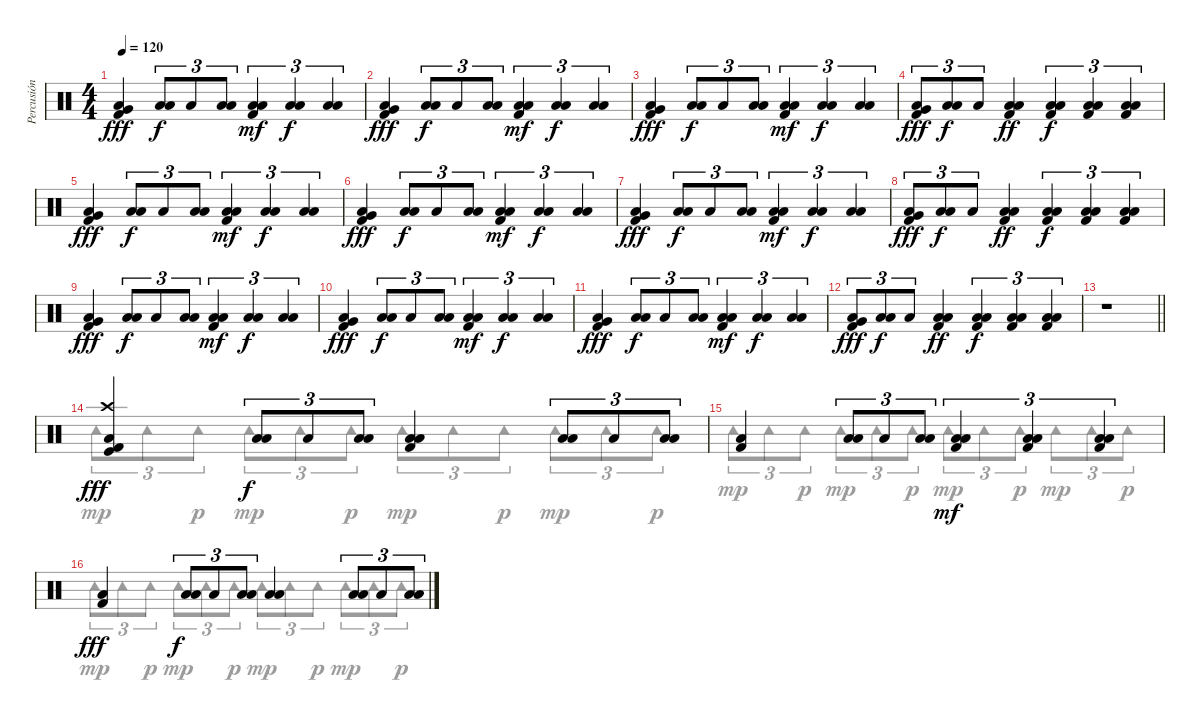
\track ("Percusión" "Percusión") {instrument percussion}
\staff {score}
\articulation defaults
\voice
\ts (4 4)
\tempo 120
\clef neutral
\ks c
("Low Floor Tom (hit)" "Very Low Tom (hit)" "Kick (hit) 2").4{dy fff} ("Low Floor Tom (hit)" "Low Floor Tom (hit)").8{tu (3 2) dy f} "Low Floor Tom (hit)".8{tu (3 2)} ("Low Floor Tom (hit)" "Low Floor Tom (hit)").8{tu (3 2)} ("Kick (hit) 2" "Low Floor Tom (hit)" "Low Floor Tom (hit)").4{tu (3 2) dy mf} ("Low Floor Tom (hit)" "Low Floor Tom (hit)").4{tu (3 2) dy f} ("Low Floor Tom (hit)" "Low Floor Tom (hit)").4{tu (3 2)} |
("Low Floor Tom (hit)" "Very Low Tom (hit)" "Kick (hit) 2").4{dy fff} ("Low Floor Tom (hit)" "Low Floor Tom (hit)").8{tu (3 2) dy f} "Low Floor Tom (hit)".8{tu (3 2)} ("Low Floor Tom (hit)" "Low Floor Tom (hit)").8{tu (3 2)} ("Kick (hit) 2" "Low Floor Tom (hit)" "Low Floor Tom (hit)").4{tu (3 2) dy mf} ("Low Floor Tom (hit)" "Low Floor Tom (hit)").4{tu (3 2) dy f} ("Low Floor Tom (hit)" "Low Floor Tom (hit)").4{tu (3 2)} |
("Low Floor Tom (hit)" "Very Low Tom (hit)" "Kick (hit) 2").4{dy fff} ("Low Floor Tom (hit)" "Low Floor Tom (hit)").8{tu (3 2) dy f} "Low Floor Tom (hit)".8{tu (3 2)} ("Low Floor Tom (hit)" "Low Floor Tom (hit)").8{tu (3 2)} ("Kick (hit) 2" "Low Floor Tom (hit)" "Low Floor Tom (hit)").4{tu (3 2) dy mf} ("Low Floor Tom (hit)" "Low Floor Tom (hit)").4{tu (3 2) dy f} ("Low Floor Tom (hit)" "Low Floor Tom (hit)").4{tu (3 2)} |
("Low Floor Tom (hit)" "Very Low Tom (hit)" "Kick (hit) 2").8{tu (3 2) dy fff} ("Low Floor Tom (hit)" "Low Floor Tom (hit)").8{tu (3 2) dy f} "Low Floor Tom (hit)".8{tu (3 2)} ("Kick (hit) 2" "Low Floor Tom (hit)" "Low Floor Tom (hit)").4{dy ff} ("Kick (hit) 2" "Low Floor Tom (hit)" "Low Floor Tom (hit)").4{tu (3 2) dy f} ("Kick (hit) 2" "Low Floor Tom (hit)" "Low Floor Tom (hit)").4{tu (3 2)} ("Kick (hit) 2" "Low Floor Tom (hit)" "Low Floor Tom (hit)").4{tu (3 2)} |
("Low Floor Tom (hit)" "Very Low Tom (hit)" "Kick (hit) 2").4{dy fff} ("Low Floor Tom (hit)" "Low Floor Tom (hit)").8{tu (3 2) dy f} "Low Floor Tom (hit)".8{tu (3 2)} ("Low Floor Tom (hit)" "Low Floor Tom (hit)").8{tu (3 2)} ("Kick (hit) 2" "Low Floor Tom (hit)" "Low Floor Tom (hit)").4{tu (3 2) dy mf} ("Low Floor Tom (hit)" "Low Floor Tom (hit)").4{tu (3 2) dy f} ("Low Floor Tom (hit)" "Low Floor Tom (hit)").4{tu (3 2)} |
("Low Floor Tom (hit)" "Very Low Tom (hit)" "Kick (hit) 2").4{dy fff} ("Low Floor Tom (hit)" "Low Floor Tom (hit)").8{tu (3 2) dy f} "Low Floor Tom (hit)".8{tu (3 2)} ("Low Floor Tom (hit)" "Low Floor Tom (hit)").8{tu (3 2)} ("Kick (hit) 2" "Low Floor Tom (hit)" "Low Floor Tom (hit)").4{tu (3 2) dy mf} ("Low Floor Tom (hit)" "Low Floor Tom (hit)").4{tu (3 2) dy f} ("Low Floor Tom (hit)" "Low Floor Tom (hit)").4{tu (3 2)} |
("Low Floor Tom (hit)" "Very Low Tom (hit)" "Kick (hit) 2").4{dy fff} ("Low Floor Tom (hit)" "Low Floor Tom (hit)").8{tu (3 2) dy f} "Low Floor Tom (hit)".8{tu (3 2)} ("Low Floor Tom (hit)" "Low Floor Tom (hit)").8{tu (3 2)} ("Kick (hit) 2" "Low Floor Tom (hit)" "Low Floor Tom (hit)").4{tu (3 2) dy mf} ("Low Floor Tom (hit)" "Low Floor Tom (hit)").4{tu (3 2) dy f} ("Low Floor Tom (hit)" "Low Floor Tom (hit)").4{tu (3 2)} |
("Low Floor Tom (hit)" "Very Low Tom (hit)" "Kick (hit) 2").8{tu (3 2) dy fff} ("Low Floor Tom (hit)" "Low Floor Tom (hit)").8{tu (3 2) dy f} "Low Floor Tom (hit)".8{tu (3 2)} ("Kick (hit) 2" "Low Floor Tom (hit)" "Low Floor Tom (hit)").4{dy ff} ("Kick (hit) 2" "Low Floor Tom (hit)" "Low Floor Tom (hit)").4{tu (3 2) dy f} ("Kick (hit) 2" "Low Floor Tom (hit)" "Low Floor Tom (hit)").4{tu (3 2)} ("Kick (hit) 2" "Low Floor Tom (hit)" "Low Floor Tom (hit)").4{tu (3 2)} |
("Low Floor Tom (hit)" "Very Low Tom (hit)" "Kick (hit) 2").4{dy fff} ("Low Floor Tom (hit)" "Low Floor Tom (hit)").8{tu (3 2) dy f} "Low Floor Tom (hit)".8{tu (3 2)} ("Low Floor Tom (hit)" "Low Floor Tom (hit)").8{tu (3 2)} ("Kick (hit) 2" "Low Floor Tom (hit)" "Low Floor Tom (hit)").4{tu (3 2) dy mf} ("Low Floor Tom (hit)" "Low Floor Tom (hit)").4{tu (3 2) dy f} ("Low Floor Tom (hit)" "Low Floor Tom (hit)").4{tu (3 2)} |
("Low Floor Tom (hit)" "Very Low Tom (hit)" "Kick (hit) 2").4{dy fff} ("Low Floor Tom (hit)" "Low Floor Tom (hit)").8{tu (3 2) dy f} "Low Floor Tom (hit)".8{tu (3 2)} ("Low Floor Tom (hit)" "Low Floor Tom (hit)").8{tu (3 2)} ("Kick (hit) 2" "Low Floor Tom (hit)" "Low Floor Tom (hit)").4{tu (3 2) dy mf} ("Low Floor Tom (hit)" "Low Floor Tom (hit)").4{tu (3 2) dy f} ("Low Floor Tom (hit)" "Low Floor Tom (hit)").4{tu (3 2)} |
("Low Floor Tom (hit)" "Very Low Tom (hit)" "Kick (hit) 2").4{dy fff} ("Low Floor Tom (hit)" "Low Floor Tom (hit)").8{tu (3 2) dy f} "Low Floor Tom (hit)".8{tu (3 2)} ("Low Floor Tom (hit)" "Low Floor Tom (hit)").8{tu (3 2)} ("Kick (hit) 2" "Low Floor Tom (hit)" "Low Floor Tom (hit)").4{tu (3 2) dy mf} ("Low Floor Tom (hit)" "Low Floor Tom (hit)").4{tu (3 2) dy f} ("Low Floor Tom (hit)" "Low Floor Tom (hit)").4{tu (3 2)} |
("Low Floor Tom (hit)" "Very Low Tom (hit)" "Kick (hit) 2").8{tu (3 2) dy fff} ("Low Floor Tom (hit)" "Low Floor Tom (hit)").8{tu (3 2) dy f} "Low Floor Tom (hit)".8{tu (3 2)} ("Kick (hit) 2" "Low Floor Tom (hit)" "Low Floor Tom (hit)").4{dy ff} ("Kick (hit) 2" "Low Floor Tom (hit)" "Low Floor Tom (hit)").4{tu (3 2) dy f} ("Kick (hit) 2" "Low Floor Tom (hit)" "Low Floor Tom (hit)").4{tu (3 2)} ("Kick (hit) 2" "Low Floor Tom (hit)" "Low Floor Tom (hit)").4{tu (3 2)} |
\barLineRight lightlight
r.1 |
("Crash high (hit)" "Kick (hit)" "Low Floor Tom (hit)" "Kick (hit) 2").4{dy fff} ("Low Floor Tom (hit)" "Low Floor Tom (hit)").8{tu (3 2) dy f} "Low Floor Tom (hit)".8{tu (3 2)} ("Low Floor Tom (hit)" "Low Floor Tom (hit)").8{tu (3 2)} ("Kick (hit) 2" "Low Floor Tom (hit)" "Low Floor Tom (hit)").4 ("Low Floor Tom (hit)" "Low Floor Tom (hit)").8{tu (3 2)} "Low Floor Tom (hit)".8{tu (3 2)} ("Low Floor Tom (hit)" "Low Floor Tom (hit)").8{tu (3 2)} |
("Low Floor Tom (hit)" "Kick (hit) 2").4 ("Low Floor Tom (hit)" "Low Floor Tom (hit)").8{tu (3 2)} "Low Floor Tom (hit)".8{tu (3 2)} ("Low Floor Tom (hit)" "Low Floor Tom (hit)").8{tu (3 2)} ("Kick (hit) 2" "Low Floor Tom (hit)" "Low Floor Tom (hit)").4{tu (3 2) dy mf} ("Kick (hit) 2" "Low Floor Tom (hit)" "Low Floor Tom (hit)").4{tu (3 2)} ("Kick (hit) 2" "Low Floor Tom (hit)" "Low Floor Tom (hit)").4{tu (3 2)} |
("Low Floor Tom (hit)" "Kick (hit) 2").4{dy fff} ("Low Floor Tom (hit)" "Low Floor Tom (hit)").8{tu (3 2) dy f} "Low Floor Tom (hit)".8{tu (3 2)} ("Low Floor Tom (hit)" "Low Floor Tom (hit)").8{tu (3 2)} ("Low Floor Tom (hit)" "Low Floor Tom (hit)").4 ("Low Floor Tom (hit)" "Low Floor Tom (hit)").8{tu (3 2)} "Low Floor Tom (hit)".8{tu (3 2)} ("Low Floor Tom (hit)" "Low Floor Tom (hit)").8{tu (3 2)}
\voice
\clef neutral
\ottava regular
\simile none
\ks c
|
|
|
|
|
|
|
|
|
|
|
|
\barLineRight lightlight
|
"Tambourine (hit)".8{tu (3 2) dy mp} "Tambourine (hit)".8{tu (3 2)} "Tambourine (hit)".8{tu (3 2) dy p} "Tambourine (hit)".8{tu (3 2) dy mp} "Tambourine (hit)".8{tu (3 2)} "Tambourine (hit)".8{tu (3 2) dy p} "Tambourine (hit)".8{tu (3 2) dy mp} "Tambourine (hit)".8{tu (3 2)} "Tambourine (hit)".8{tu (3 2) dy p} "Tambourine (hit)".8{tu (3 2) dy mp} "Tambourine (hit)".8{tu (3 2)} "Tambourine (hit)".8{tu (3 2) dy p} |
"Tambourine (hit)".8{tu (3 2) dy mp} "Tambourine (hit)".8{tu (3 2)} "Tambourine (hit)".8{tu (3 2) dy p} "Tambourine (hit)".8{tu (3 2) dy mp} "Tambourine (hit)".8{tu (3 2)} "Tambourine (hit)".8{tu (3 2) dy p} "Tambourine (hit)".8{tu (3 2) dy mp} "Tambourine (hit)".8{tu (3 2)} "Tambourine (hit)".8{tu (3 2) dy p} "Tambourine (hit)".8{tu (3 2) dy mp} "Tambourine (hit)".8{tu (3 2)} "Tambourine (hit)".8{tu (3 2) dy p} |
"Tambourine (hit)".8{tu (3 2) dy mp} "Tambourine (hit)".8{tu (3 2)} "Tambourine (hit)".8{tu (3 2) dy p} "Tambourine (hit)".8{tu (3 2) dy mp} "Tambourine (hit)".8{tu (3 2)} "Tambourine (hit)".8{tu (3 2) dy p} "Tambourine (hit)".8{tu (3 2) dy mp} "Tambourine (hit)".8{tu (3 2)} "Tambourine (hit)".8{tu (3 2) dy p} "Tambourine (hit)".8{tu (3 2) dy mp} "Tambourine (hit)".8{tu (3 2)} "Tambourine (hit)".8{tu (3 2) dy p}
